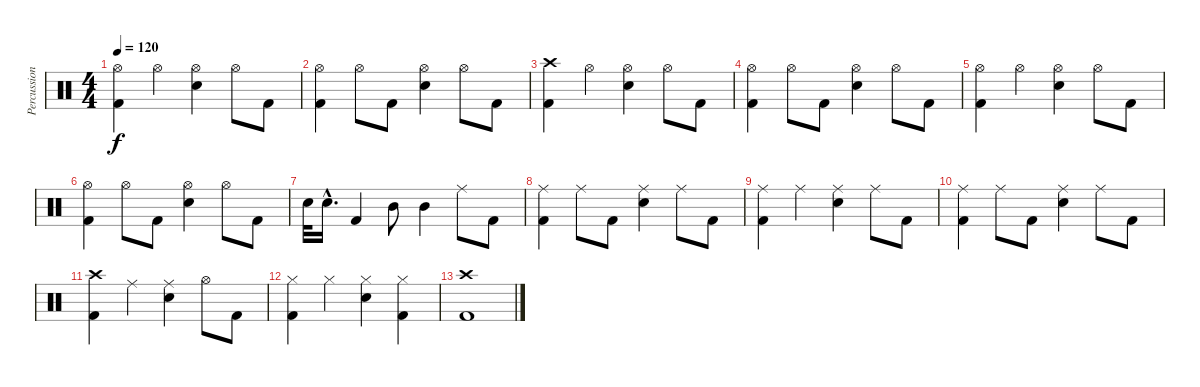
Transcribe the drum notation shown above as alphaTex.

\track ("Percussion" "Percussion") {instrument percussion}
\staff {score}
\articulation defaults
\ts (4 4)
\tempo 120
\clef neutral
\ks c
("Hi-Hat (open)" "Kick (hit) 2").4{dy f} "Hi-Hat (open)".4 ("Hi-Hat (open)" "Snare (hit) 2").4 "Hi-Hat (open)".8 "Kick (hit) 2".8 |
("Hi-Hat (open)" "Kick (hit) 2").4 "Hi-Hat (open)".8 "Kick (hit) 2".8 ("Hi-Hat (open)" "Snare (hit) 2").4 "Hi-Hat (open)".8 "Kick (hit) 2".8 |
("Crash high (hit)" "Kick (hit) 2").4 "Hi-Hat (open)".4 ("Hi-Hat (open)" "Snare (hit) 2").4 "Hi-Hat (open)".8 "Kick (hit) 2".8 |
("Hi-Hat (open)" "Kick (hit) 2").4 "Hi-Hat (open)".8 "Kick (hit) 2".8 ("Hi-Hat (open)" "Snare (hit) 2").4 "Hi-Hat (open)".8 "Kick (hit) 2".8 |
("Hi-Hat (open)" "Kick (hit) 2").4 "Hi-Hat (open)".4 ("Hi-Hat (open)" "Snare (hit) 2").4 "Hi-Hat (open)".8 "Kick (hit) 2".8 |
("Hi-Hat (open)" "Kick (hit) 2").4 "Hi-Hat (open)".8 "Kick (hit) 2".8 ("Hi-Hat (open)" "Snare (hit) 2").4 "Hi-Hat (open)".8 "Kick (hit) 2".8 |
"Snare (hit) 2".32 "Snare (hit) 2"{hac}.16{d} "Kick (hit) 2".4 "Mid Tom (hit)".8 "Mid Tom (hit)".4 "Ride (middle)".8 "Kick (hit) 2".8 |
("Ride (middle)" "Kick (hit) 2").4 "Ride (middle)".8 "Kick (hit) 2".8 ("Ride (middle)" "Snare (hit) 2").4 "Ride (middle)".8 "Kick (hit) 2".8 |
("Ride (middle)" "Kick (hit) 2").4 "Ride (middle)".4 ("Ride (middle)" "Snare (hit) 2").4 "Ride (middle)".8 "Kick (hit) 2".8 |
("Ride (middle)" "Kick (hit) 2").4 "Ride (middle)".8 "Kick (hit) 2".8 ("Ride (middle)" "Snare (hit) 2").4 "Ride (middle)".8 "Kick (hit) 2".8 |
("Crash high (hit)" "Kick (hit) 2").4 "Ride (middle)".4 ("Ride (middle)" "Snare (hit) 2").4 "Hi-Hat (open)".8 "Kick (hit) 2".8 |
("Hi-Hat (closed)" "Kick (hit) 2").4 "Hi-Hat (closed)".4 ("Hi-Hat (closed)" "Snare (hit) 2").4 ("Hi-Hat (closed)" "Kick (hit) 2").4 |
("Crash high (hit)" "Kick (hit) 2").1
